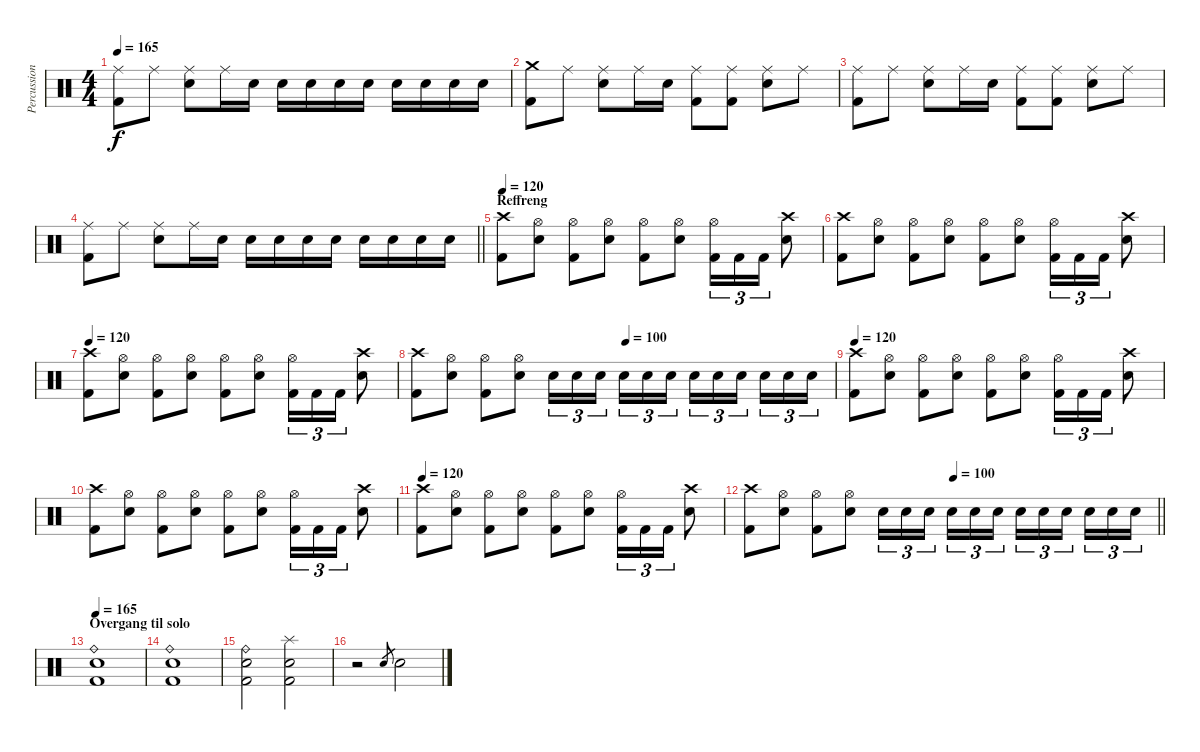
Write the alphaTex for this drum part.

\track ("Percussions" "Percussion") {instrument percussion}
\staff {score}
\articulation defaults
\ts (4 4)
\tempo 165
\clef neutral
\ks c
("Ride (middle)" "Kick (hit) 2").8{dy f} "Ride (middle)".8 ("Ride (middle)" "Snare (hit) 2").8 "Ride (middle)".16 "Snare (hit) 2".16 "Snare (hit) 2".16 "Snare (hit) 2".16 "Snare (hit) 2".16 "Snare (hit) 2".16 "Snare (hit) 2".16 "Snare (hit) 2".16 "Snare (hit) 2".16 "Snare (hit) 2".16 |
("Crash medium (hit)" "Kick (hit) 2").8 "Ride (middle)".8 ("Ride (middle)" "Snare (hit) 2").8 "Ride (middle)".16 "Snare (hit) 2".16 ("Ride (middle)" "Kick (hit) 2").8 ("Ride (middle)" "Kick (hit) 2").8 ("Ride (middle)" "Snare (hit) 2").8 "Ride (middle)".8 |
("Ride (middle)" "Kick (hit) 2").8 "Ride (middle)".8 ("Ride (middle)" "Snare (hit) 2").8 "Ride (middle)".16 "Snare (hit) 2".16 ("Ride (middle)" "Kick (hit) 2").8 ("Ride (middle)" "Kick (hit) 2").8 ("Ride (middle)" "Snare (hit) 2").8 "Ride (middle)".8 |
\barLineRight lightlight
("Ride (middle)" "Kick (hit) 2").8 "Ride (middle)".8 ("Ride (middle)" "Snare (hit) 2").8 "Ride (middle)".16 "Snare (hit) 2".16 "Snare (hit) 2".16 "Snare (hit) 2".16 "Snare (hit) 2".16 "Snare (hit) 2".16 "Snare (hit) 2".16 "Snare (hit) 2".16 "Snare (hit) 2".16 "Snare (hit) 2".16 |
\section ("" "Reffreng")
\tempo 120
("Crash high (hit)" "Kick (hit) 2").8 ("Hi-Hat (open)" "Snare (hit) 2").8 ("Hi-Hat (open)" "Kick (hit) 2").8 ("Hi-Hat (open)" "Snare (hit) 2").8 ("Hi-Hat (open)" "Kick (hit) 2").8 ("Hi-Hat (open)" "Snare (hit) 2").8 ("Hi-Hat (open)" "Kick (hit) 2").16{tu (3 2)} "Kick (hit) 2".16{tu (3 2)} "Kick (hit) 2".16{tu (3 2)} ("Crash high (hit)" "Snare (hit) 2").8 |
("Crash high (hit)" "Kick (hit) 2").8 ("Hi-Hat (open)" "Snare (hit) 2").8 ("Hi-Hat (open)" "Kick (hit) 2").8 ("Hi-Hat (open)" "Snare (hit) 2").8 ("Hi-Hat (open)" "Kick (hit) 2").8 ("Hi-Hat (open)" "Snare (hit) 2").8 ("Hi-Hat (open)" "Kick (hit) 2").16{tu (3 2)} "Kick (hit) 2".16{tu (3 2)} "Kick (hit) 2".16{tu (3 2)} ("Crash high (hit)" "Snare (hit) 2").8 |
\tempo 120
("Crash high (hit)" "Kick (hit) 2").8 ("Hi-Hat (open)" "Snare (hit) 2").8 ("Hi-Hat (open)" "Kick (hit) 2").8 ("Hi-Hat (open)" "Snare (hit) 2").8 ("Hi-Hat (open)" "Kick (hit) 2").8 ("Hi-Hat (open)" "Snare (hit) 2").8 ("Hi-Hat (open)" "Kick (hit) 2").16{tu (3 2)} "Kick (hit) 2".16{tu (3 2)} "Kick (hit) 2".16{tu (3 2)} ("Crash high (hit)" "Snare (hit) 2").8 |
\tempo (100 0.5)
("Crash high (hit)" "Kick (hit) 2").8 ("Hi-Hat (open)" "Snare (hit) 2").8 ("Hi-Hat (open)" "Kick (hit) 2").8 ("Hi-Hat (open)" "Snare (hit) 2").8 "Snare (hit) 2".16{tu (3 2)} "Snare (hit) 2".16{tu (3 2)} "Snare (hit) 2".16{tu (3 2) beam splitsecondary} "Snare (hit) 2".16{tu (3 2)} "Snare (hit) 2".16{tu (3 2)} "Snare (hit) 2".16{tu (3 2)} "Snare (hit) 2".16{tu (3 2)} "Snare (hit) 2".16{tu (3 2)} "Snare (hit) 2".16{tu (3 2) beam splitsecondary} "Snare (hit) 2".16{tu (3 2)} "Snare (hit) 2".16{tu (3 2)} "Snare (hit) 2".16{tu (3 2)} |
\tempo 120
("Crash high (hit)" "Kick (hit) 2").8 ("Hi-Hat (open)" "Snare (hit) 2").8 ("Hi-Hat (open)" "Kick (hit) 2").8 ("Hi-Hat (open)" "Snare (hit) 2").8 ("Hi-Hat (open)" "Kick (hit) 2").8 ("Hi-Hat (open)" "Snare (hit) 2").8 ("Hi-Hat (open)" "Kick (hit) 2").16{tu (3 2)} "Kick (hit) 2".16{tu (3 2)} "Kick (hit) 2".16{tu (3 2)} ("Crash high (hit)" "Snare (hit) 2").8 |
("Crash high (hit)" "Kick (hit) 2").8 ("Hi-Hat (open)" "Snare (hit) 2").8 ("Hi-Hat (open)" "Kick (hit) 2").8 ("Hi-Hat (open)" "Snare (hit) 2").8 ("Hi-Hat (open)" "Kick (hit) 2").8 ("Hi-Hat (open)" "Snare (hit) 2").8 ("Hi-Hat (open)" "Kick (hit) 2").16{tu (3 2)} "Kick (hit) 2".16{tu (3 2)} "Kick (hit) 2".16{tu (3 2)} ("Crash high (hit)" "Snare (hit) 2").8 |
\tempo 120
("Crash high (hit)" "Kick (hit) 2").8 ("Hi-Hat (open)" "Snare (hit) 2").8 ("Hi-Hat (open)" "Kick (hit) 2").8 ("Hi-Hat (open)" "Snare (hit) 2").8 ("Hi-Hat (open)" "Kick (hit) 2").8 ("Hi-Hat (open)" "Snare (hit) 2").8 ("Hi-Hat (open)" "Kick (hit) 2").16{tu (3 2)} "Kick (hit) 2".16{tu (3 2)} "Kick (hit) 2".16{tu (3 2)} ("Crash high (hit)" "Snare (hit) 2").8 |
\tempo (100 0.5)
\barLineRight lightlight
("Crash high (hit)" "Kick (hit) 2").8 ("Hi-Hat (open)" "Snare (hit) 2").8 ("Hi-Hat (open)" "Kick (hit) 2").8 ("Hi-Hat (open)" "Snare (hit) 2").8 "Snare (hit) 2".16{tu (3 2)} "Snare (hit) 2".16{tu (3 2)} "Snare (hit) 2".16{tu (3 2) beam splitsecondary} "Snare (hit) 2".16{tu (3 2)} "Snare (hit) 2".16{tu (3 2)} "Snare (hit) 2".16{tu (3 2)} "Snare (hit) 2".16{tu (3 2)} "Snare (hit) 2".16{tu (3 2)} "Snare (hit) 2".16{tu (3 2) beam splitsecondary} "Snare (hit) 2".16{tu (3 2)} "Snare (hit) 2".16{tu (3 2)} "Snare (hit) 2".16{tu (3 2)} |
\section ("" "Overgang til solo")
\tempo 165
("Ride (bell)" "Snare (hit) 2" "Kick (hit) 2").1 |
("Ride (bell)" "Snare (hit) 2" "Kick (hit) 2").1 |
("Ride (bell)" "Snare (hit) 2" "Kick (hit) 2").2 ("Splash (hit)" "Snare (hit) 2" "Kick (hit) 2").2 |
r.2 "Snare (hit) 2".8{gr} "Snare (hit) 2".2
